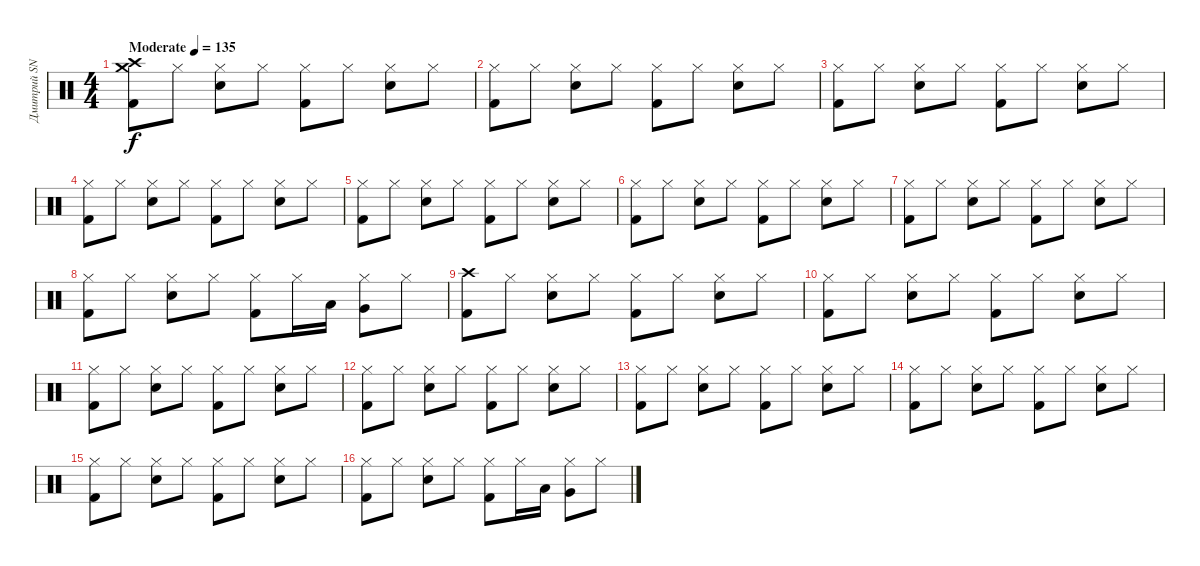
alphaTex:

\track ("Дмитрий SNAKE Хакимов" "Дмитрий SN") {instrument percussion}
\staff {score}
\articulation defaults
\ts (4 4)
\tempo (135 "Moderate")
\clef neutral
\ks c
("Crash high (hit)" "Crash medium (hit)" "Kick (hit) 2").8{dy f} "Hi-Hat (closed)".8 ("Hi-Hat (closed)" "Electric Snare (hit)").8 "Hi-Hat (closed)".8 ("Hi-Hat (closed)" "Kick (hit) 2").8 "Hi-Hat (closed)".8 ("Hi-Hat (closed)" "Electric Snare (hit)").8 "Hi-Hat (closed)".8 |
("Hi-Hat (closed)" "Kick (hit) 2").8 "Hi-Hat (closed)".8 ("Hi-Hat (closed)" "Electric Snare (hit)").8 "Hi-Hat (closed)".8 ("Hi-Hat (closed)" "Kick (hit) 2").8 "Hi-Hat (closed)".8 ("Hi-Hat (closed)" "Electric Snare (hit)").8 "Hi-Hat (closed)".8 |
("Hi-Hat (closed)" "Kick (hit) 2").8 "Hi-Hat (closed)".8 ("Hi-Hat (closed)" "Electric Snare (hit)").8 "Hi-Hat (closed)".8 ("Hi-Hat (closed)" "Kick (hit) 2").8 "Hi-Hat (closed)".8 ("Hi-Hat (closed)" "Electric Snare (hit)").8 "Hi-Hat (closed)".8 |
("Hi-Hat (closed)" "Kick (hit) 2").8 "Hi-Hat (closed)".8 ("Hi-Hat (closed)" "Electric Snare (hit)").8 "Hi-Hat (closed)".8 ("Hi-Hat (closed)" "Kick (hit) 2").8 "Hi-Hat (closed)".8 ("Hi-Hat (closed)" "Electric Snare (hit)").8 "Hi-Hat (closed)".8 |
("Hi-Hat (closed)" "Kick (hit) 2").8 "Hi-Hat (closed)".8 ("Hi-Hat (closed)" "Electric Snare (hit)").8 "Hi-Hat (closed)".8 ("Hi-Hat (closed)" "Kick (hit) 2").8 "Hi-Hat (closed)".8 ("Hi-Hat (closed)" "Electric Snare (hit)").8 "Hi-Hat (closed)".8 |
("Hi-Hat (closed)" "Kick (hit) 2").8 "Hi-Hat (closed)".8 ("Hi-Hat (closed)" "Electric Snare (hit)").8 "Hi-Hat (closed)".8 ("Hi-Hat (closed)" "Kick (hit) 2").8 "Hi-Hat (closed)".8 ("Hi-Hat (closed)" "Electric Snare (hit)").8 "Hi-Hat (closed)".8 |
("Hi-Hat (closed)" "Kick (hit) 2").8 "Hi-Hat (closed)".8 ("Hi-Hat (closed)" "Electric Snare (hit)").8 "Hi-Hat (closed)".8 ("Hi-Hat (closed)" "Kick (hit) 2").8 "Hi-Hat (closed)".8 ("Hi-Hat (closed)" "Electric Snare (hit)").8 "Hi-Hat (closed)".8 |
("Hi-Hat (closed)" "Kick (hit) 2").8 "Hi-Hat (closed)".8 ("Hi-Hat (closed)" "Electric Snare (hit)").8 "Hi-Hat (closed)".8 ("Hi-Hat (closed)" "Kick (hit) 2").8 "Hi-Hat (closed)".16 "Low Tom (hit)".16 ("Hi-Hat (closed)" "Very Low Tom (hit)").8 "Hi-Hat (closed)".8 |
("Crash high (hit)" "Kick (hit) 2").8 "Hi-Hat (closed)".8 ("Hi-Hat (closed)" "Electric Snare (hit)").8 "Hi-Hat (closed)".8 ("Hi-Hat (closed)" "Kick (hit) 2").8 "Hi-Hat (closed)".8 ("Hi-Hat (closed)" "Electric Snare (hit)").8 "Hi-Hat (closed)".8 |
("Hi-Hat (closed)" "Kick (hit) 2").8 "Hi-Hat (closed)".8 ("Hi-Hat (closed)" "Electric Snare (hit)").8 "Hi-Hat (closed)".8 ("Hi-Hat (closed)" "Kick (hit) 2").8 "Hi-Hat (closed)".8 ("Hi-Hat (closed)" "Electric Snare (hit)").8 "Hi-Hat (closed)".8 |
("Hi-Hat (closed)" "Kick (hit) 2").8 "Hi-Hat (closed)".8 ("Hi-Hat (closed)" "Electric Snare (hit)").8 "Hi-Hat (closed)".8 ("Hi-Hat (closed)" "Kick (hit) 2").8 "Hi-Hat (closed)".8 ("Hi-Hat (closed)" "Electric Snare (hit)").8 "Hi-Hat (closed)".8 |
("Hi-Hat (closed)" "Kick (hit) 2").8 "Hi-Hat (closed)".8 ("Hi-Hat (closed)" "Electric Snare (hit)").8 "Hi-Hat (closed)".8 ("Hi-Hat (closed)" "Kick (hit) 2").8 "Hi-Hat (closed)".8 ("Hi-Hat (closed)" "Electric Snare (hit)").8 "Hi-Hat (closed)".8 |
("Hi-Hat (closed)" "Kick (hit) 2").8 "Hi-Hat (closed)".8 ("Hi-Hat (closed)" "Electric Snare (hit)").8 "Hi-Hat (closed)".8 ("Hi-Hat (closed)" "Kick (hit) 2").8 "Hi-Hat (closed)".8 ("Hi-Hat (closed)" "Electric Snare (hit)").8 "Hi-Hat (closed)".8 |
("Hi-Hat (closed)" "Kick (hit) 2").8 "Hi-Hat (closed)".8 ("Hi-Hat (closed)" "Electric Snare (hit)").8 "Hi-Hat (closed)".8 ("Hi-Hat (closed)" "Kick (hit) 2").8 "Hi-Hat (closed)".8 ("Hi-Hat (closed)" "Electric Snare (hit)").8 "Hi-Hat (closed)".8 |
("Hi-Hat (closed)" "Kick (hit) 2").8 "Hi-Hat (closed)".8 ("Hi-Hat (closed)" "Electric Snare (hit)").8 "Hi-Hat (closed)".8 ("Hi-Hat (closed)" "Kick (hit) 2").8 "Hi-Hat (closed)".8 ("Hi-Hat (closed)" "Electric Snare (hit)").8 "Hi-Hat (closed)".8 |
("Hi-Hat (closed)" "Kick (hit) 2").8 "Hi-Hat (closed)".8 ("Hi-Hat (closed)" "Electric Snare (hit)").8 "Hi-Hat (closed)".8 ("Hi-Hat (closed)" "Kick (hit) 2").8 "Hi-Hat (closed)".16 "Low Tom (hit)".16 ("Hi-Hat (closed)" "Very Low Tom (hit)").8 "Hi-Hat (closed)".8
